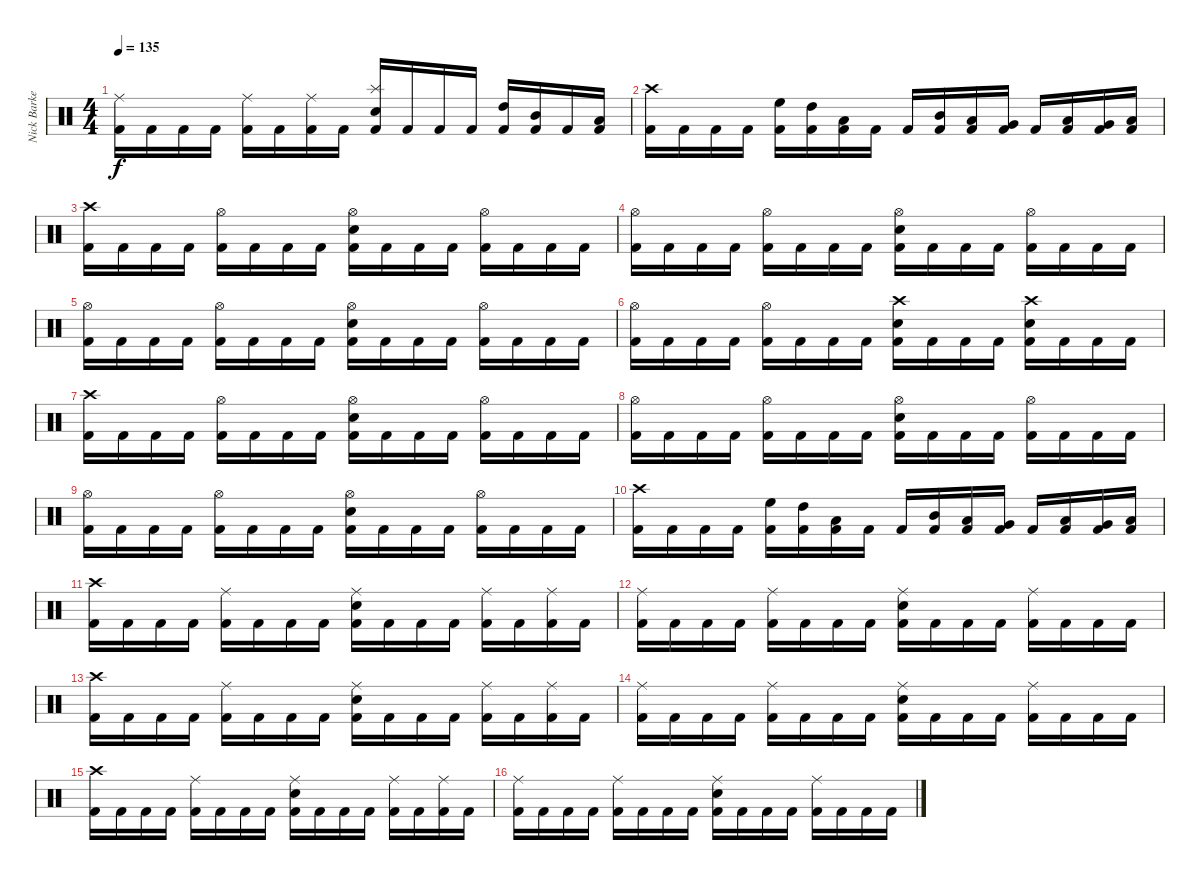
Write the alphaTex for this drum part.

\track ("Nick Barker" "Nick Barke") {instrument percussion}
\staff {score}
\articulation defaults
\ts (4 4)
\tempo 135
\clef neutral
\ks c
("Ride (middle)" "Kick (hit) 2").16{dy f} "Kick (hit) 2".16 "Kick (hit) 2".16 "Kick (hit) 2".16 ("Ride (middle)" "Kick (hit) 2").16 "Kick (hit) 2".16 ("Ride (middle)" "Kick (hit) 2").16 "Kick (hit) 2".16 ("Splash (hit)" "Electric Snare (hit)" "Kick (hit) 2").16 "Kick (hit) 2".16 "Kick (hit) 2".16 "Kick (hit) 2".16 ("High Tom (hit)" "Kick (hit) 2").16 ("Mid Tom (hit)" "Kick (hit) 2").16 "Kick (hit) 2".16 ("Low Tom (hit)" "Kick (hit) 2").16 |
("Crash high (hit)" "Kick (hit) 2").16 "Kick (hit) 2".16 "Kick (hit) 2".16 "Kick (hit) 2".16 ("High Floor Tom (hit)" "Kick (hit) 2").16 ("High Tom (hit)" "Kick (hit) 2").16 ("Low Tom (hit)" "Kick (hit) 2").16 "Kick (hit) 2".16 "Kick (hit) 2".16 ("Mid Tom (hit)" "Kick (hit) 2").16 ("Low Tom (hit)" "Kick (hit) 2").16 ("Very Low Tom (hit)" "Kick (hit) 2").16 "Kick (hit) 2".16 ("Low Tom (hit)" "Kick (hit) 2").16 ("Very Low Tom (hit)" "Kick (hit) 2").16 ("Low Floor Tom (hit)" "Kick (hit) 2").16 |
("Crash high (hit)" "Kick (hit) 2").16 "Kick (hit) 2".16 "Kick (hit) 2".16 "Kick (hit) 2".16 ("Hi-Hat (open)" "Kick (hit) 2").16 "Kick (hit) 2".16 "Kick (hit) 2".16 "Kick (hit) 2".16 ("Hi-Hat (open)" "Electric Snare (hit)" "Kick (hit) 2").16 "Kick (hit) 2".16 "Kick (hit) 2".16 "Kick (hit) 2".16 ("Hi-Hat (open)" "Kick (hit) 2").16 "Kick (hit) 2".16 "Kick (hit) 2".16 "Kick (hit) 2".16 |
("Hi-Hat (open)" "Kick (hit) 2").16 "Kick (hit) 2".16 "Kick (hit) 2".16 "Kick (hit) 2".16 ("Hi-Hat (open)" "Kick (hit) 2").16 "Kick (hit) 2".16 "Kick (hit) 2".16 "Kick (hit) 2".16 ("Hi-Hat (open)" "Electric Snare (hit)" "Kick (hit) 2").16 "Kick (hit) 2".16 "Kick (hit) 2".16 "Kick (hit) 2".16 ("Hi-Hat (open)" "Kick (hit) 2").16 "Kick (hit) 2".16 "Kick (hit) 2".16 "Kick (hit) 2".16 |
("Hi-Hat (open)" "Kick (hit) 2").16 "Kick (hit) 2".16 "Kick (hit) 2".16 "Kick (hit) 2".16 ("Hi-Hat (open)" "Kick (hit) 2").16 "Kick (hit) 2".16 "Kick (hit) 2".16 "Kick (hit) 2".16 ("Hi-Hat (open)" "Electric Snare (hit)" "Kick (hit) 2").16 "Kick (hit) 2".16 "Kick (hit) 2".16 "Kick (hit) 2".16 ("Hi-Hat (open)" "Kick (hit) 2").16 "Kick (hit) 2".16 "Kick (hit) 2".16 "Kick (hit) 2".16 |
("Hi-Hat (open)" "Kick (hit) 2").16 "Kick (hit) 2".16 "Kick (hit) 2".16 "Kick (hit) 2".16 ("Hi-Hat (open)" "Kick (hit) 2").16 "Kick (hit) 2".16 "Kick (hit) 2".16 "Kick (hit) 2".16 ("Crash high (hit)" "Electric Snare (hit)" "Kick (hit) 2").16 "Kick (hit) 2".16 "Kick (hit) 2".16 "Kick (hit) 2".16 ("Crash high (hit)" "Electric Snare (hit)" "Kick (hit) 2").16 "Kick (hit) 2".16 "Kick (hit) 2".16 "Kick (hit) 2".16 |
("Crash high (hit)" "Kick (hit) 2").16 "Kick (hit) 2".16 "Kick (hit) 2".16 "Kick (hit) 2".16 ("Hi-Hat (open)" "Kick (hit) 2").16 "Kick (hit) 2".16 "Kick (hit) 2".16 "Kick (hit) 2".16 ("Hi-Hat (open)" "Electric Snare (hit)" "Kick (hit) 2").16 "Kick (hit) 2".16 "Kick (hit) 2".16 "Kick (hit) 2".16 ("Hi-Hat (open)" "Kick (hit) 2").16 "Kick (hit) 2".16 "Kick (hit) 2".16 "Kick (hit) 2".16 |
("Hi-Hat (open)" "Kick (hit) 2").16 "Kick (hit) 2".16 "Kick (hit) 2".16 "Kick (hit) 2".16 ("Hi-Hat (open)" "Kick (hit) 2").16 "Kick (hit) 2".16 "Kick (hit) 2".16 "Kick (hit) 2".16 ("Hi-Hat (open)" "Electric Snare (hit)" "Kick (hit) 2").16 "Kick (hit) 2".16 "Kick (hit) 2".16 "Kick (hit) 2".16 ("Hi-Hat (open)" "Kick (hit) 2").16 "Kick (hit) 2".16 "Kick (hit) 2".16 "Kick (hit) 2".16 |
("Hi-Hat (open)" "Kick (hit) 2").16 "Kick (hit) 2".16 "Kick (hit) 2".16 "Kick (hit) 2".16 ("Hi-Hat (open)" "Kick (hit) 2").16 "Kick (hit) 2".16 "Kick (hit) 2".16 "Kick (hit) 2".16 ("Hi-Hat (open)" "Electric Snare (hit)" "Kick (hit) 2").16 "Kick (hit) 2".16 "Kick (hit) 2".16 "Kick (hit) 2".16 ("Hi-Hat (open)" "Kick (hit) 2").16 "Kick (hit) 2".16 "Kick (hit) 2".16 "Kick (hit) 2".16 |
("Crash high (hit)" "Kick (hit) 2").16 "Kick (hit) 2".16 "Kick (hit) 2".16 "Kick (hit) 2".16 ("High Floor Tom (hit)" "Kick (hit) 2").16 ("High Tom (hit)" "Kick (hit) 2").16 ("Low Tom (hit)" "Kick (hit) 2").16 "Kick (hit) 2".16 "Kick (hit) 2".16 ("Mid Tom (hit)" "Kick (hit) 2").16 ("Low Tom (hit)" "Kick (hit) 2").16 ("Very Low Tom (hit)" "Kick (hit) 2").16 "Kick (hit) 2".16 ("Low Tom (hit)" "Kick (hit) 2").16 ("Very Low Tom (hit)" "Kick (hit) 2").16 ("Low Floor Tom (hit)" "Kick (hit) 2").16 |
("Crash high (hit)" "Kick (hit) 2").16 "Kick (hit) 2".16 "Kick (hit) 2".16 "Kick (hit) 2".16 ("Ride (middle)" "Kick (hit) 2").16 "Kick (hit) 2".16 "Kick (hit) 2".16 "Kick (hit) 2".16 ("Ride (middle)" "Electric Snare (hit)" "Kick (hit) 2").16 "Kick (hit) 2".16 "Kick (hit) 2".16 "Kick (hit) 2".16 ("Ride (middle)" "Kick (hit) 2").16 "Kick (hit) 2".16 ("Ride (middle)" "Kick (hit) 2").16 "Kick (hit) 2".16 |
("Ride (middle)" "Kick (hit) 2").16 "Kick (hit) 2".16 "Kick (hit) 2".16 "Kick (hit) 2".16 ("Ride (middle)" "Kick (hit) 2").16 "Kick (hit) 2".16 "Kick (hit) 2".16 "Kick (hit) 2".16 ("Ride (middle)" "Electric Snare (hit)" "Kick (hit) 2").16 "Kick (hit) 2".16 "Kick (hit) 2".16 "Kick (hit) 2".16 ("Ride (middle)" "Kick (hit) 2").16 "Kick (hit) 2".16 "Kick (hit) 2".16 "Kick (hit) 2".16 |
("Crash high (hit)" "Kick (hit) 2").16 "Kick (hit) 2".16 "Kick (hit) 2".16 "Kick (hit) 2".16 ("Ride (middle)" "Kick (hit) 2").16 "Kick (hit) 2".16 "Kick (hit) 2".16 "Kick (hit) 2".16 ("Ride (middle)" "Electric Snare (hit)" "Kick (hit) 2").16 "Kick (hit) 2".16 "Kick (hit) 2".16 "Kick (hit) 2".16 ("Ride (middle)" "Kick (hit) 2").16 "Kick (hit) 2".16 ("Ride (middle)" "Kick (hit) 2").16 "Kick (hit) 2".16 |
("Ride (middle)" "Kick (hit) 2").16 "Kick (hit) 2".16 "Kick (hit) 2".16 "Kick (hit) 2".16 ("Ride (middle)" "Kick (hit) 2").16 "Kick (hit) 2".16 "Kick (hit) 2".16 "Kick (hit) 2".16 ("Ride (middle)" "Electric Snare (hit)" "Kick (hit) 2").16 "Kick (hit) 2".16 "Kick (hit) 2".16 "Kick (hit) 2".16 ("Ride (middle)" "Kick (hit) 2").16 "Kick (hit) 2".16 "Kick (hit) 2".16 "Kick (hit) 2".16 |
("Crash high (hit)" "Kick (hit) 2").16 "Kick (hit) 2".16 "Kick (hit) 2".16 "Kick (hit) 2".16 ("Ride (middle)" "Kick (hit) 2").16 "Kick (hit) 2".16 "Kick (hit) 2".16 "Kick (hit) 2".16 ("Ride (middle)" "Electric Snare (hit)" "Kick (hit) 2").16 "Kick (hit) 2".16 "Kick (hit) 2".16 "Kick (hit) 2".16 ("Ride (middle)" "Kick (hit) 2").16 "Kick (hit) 2".16 ("Ride (middle)" "Kick (hit) 2").16 "Kick (hit) 2".16 |
("Ride (middle)" "Kick (hit) 2").16 "Kick (hit) 2".16 "Kick (hit) 2".16 "Kick (hit) 2".16 ("Ride (middle)" "Kick (hit) 2").16 "Kick (hit) 2".16 "Kick (hit) 2".16 "Kick (hit) 2".16 ("Ride (middle)" "Electric Snare (hit)" "Kick (hit) 2").16 "Kick (hit) 2".16 "Kick (hit) 2".16 "Kick (hit) 2".16 ("Ride (middle)" "Kick (hit) 2").16 "Kick (hit) 2".16 "Kick (hit) 2".16 "Kick (hit) 2".16
